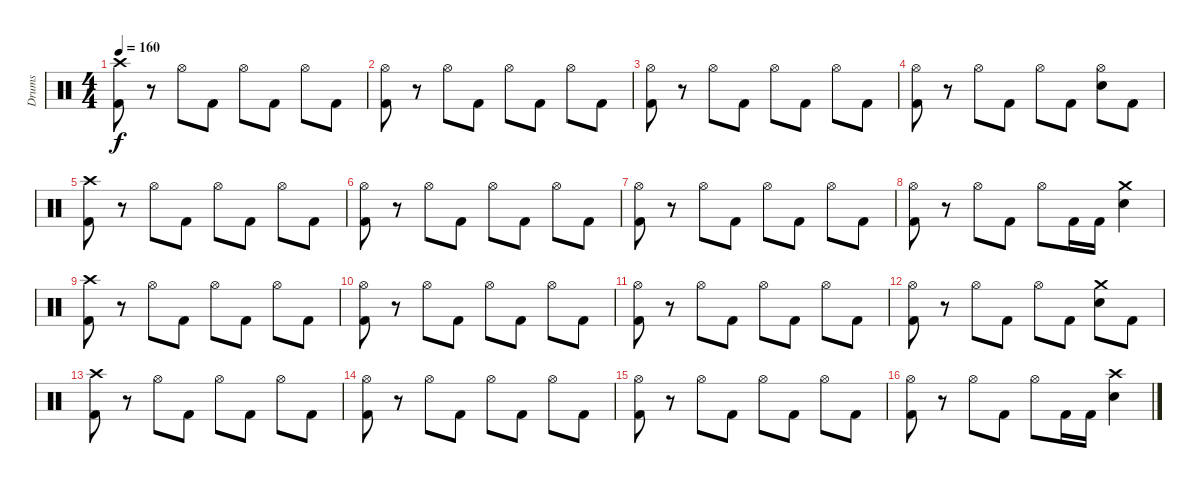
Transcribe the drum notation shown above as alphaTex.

\track ("Drums" "Drums") {instrument percussion}
\staff {score}
\articulation defaults
\ts (4 4)
\tempo 160
\clef neutral
\ks c
("Kick (hit) 2" "Crash high (hit)").8{dy f} r.8 "Hi-Hat (open)".8 "Kick (hit) 2".8 "Hi-Hat (open)".8 "Kick (hit) 2".8 "Hi-Hat (open)".8 "Kick (hit) 2".8 |
("Kick (hit) 2" "Hi-Hat (open)").8 r.8 "Hi-Hat (open)".8 "Kick (hit) 2".8 "Hi-Hat (open)".8 "Kick (hit) 2".8 "Hi-Hat (open)".8 "Kick (hit) 2".8 |
("Kick (hit) 2" "Hi-Hat (open)").8 r.8 "Hi-Hat (open)".8 "Kick (hit) 2".8 "Hi-Hat (open)".8 "Kick (hit) 2".8 "Hi-Hat (open)".8 "Kick (hit) 2".8 |
("Kick (hit) 2" "Hi-Hat (open)").8 r.8 "Hi-Hat (open)".8 "Kick (hit) 2".8 "Hi-Hat (open)".8 "Kick (hit) 2".8 ("Electric Snare (hit)" "Hi-Hat (open)").8 "Kick (hit) 2".8 |
("Kick (hit) 2" "Crash high (hit)").8 r.8 "Hi-Hat (open)".8 "Kick (hit) 2".8 "Hi-Hat (open)".8 "Kick (hit) 2".8 "Hi-Hat (open)".8 "Kick (hit) 2".8 |
("Kick (hit) 2" "Hi-Hat (open)").8 r.8 "Hi-Hat (open)".8 "Kick (hit) 2".8 "Hi-Hat (open)".8 "Kick (hit) 2".8 "Hi-Hat (open)".8 "Kick (hit) 2".8 |
("Kick (hit) 2" "Hi-Hat (open)").8 r.8 "Hi-Hat (open)".8 "Kick (hit) 2".8 "Hi-Hat (open)".8 "Kick (hit) 2".8 "Hi-Hat (open)".8 "Kick (hit) 2".8 |
("Kick (hit) 2" "Hi-Hat (open)").8 r.8 "Hi-Hat (open)".8 "Kick (hit) 2".8 "Hi-Hat (open)".8 "Kick (hit) 2".16 "Kick (hit) 2".16 ("Electric Snare (hit)" "Crash medium (hit)").4 |
("Kick (hit) 2" "Crash high (hit)").8 r.8 "Hi-Hat (open)".8 "Kick (hit) 2".8 "Hi-Hat (open)".8 "Kick (hit) 2".8 "Hi-Hat (open)".8 "Kick (hit) 2".8 |
("Kick (hit) 2" "Hi-Hat (open)").8 r.8 "Hi-Hat (open)".8 "Kick (hit) 2".8 "Hi-Hat (open)".8 "Kick (hit) 2".8 "Hi-Hat (open)".8 "Kick (hit) 2".8 |
("Kick (hit) 2" "Hi-Hat (open)").8 r.8 "Hi-Hat (open)".8 "Kick (hit) 2".8 "Hi-Hat (open)".8 "Kick (hit) 2".8 "Hi-Hat (open)".8 "Kick (hit) 2".8 |
("Kick (hit) 2" "Hi-Hat (open)").8 r.8 "Hi-Hat (open)".8 "Kick (hit) 2".8 "Hi-Hat (open)".8 "Kick (hit) 2".8 ("Electric Snare (hit)" "Crash medium (hit)").8 "Kick (hit) 2".8 |
("Kick (hit) 2" "Crash high (hit)").8 r.8 "Hi-Hat (open)".8 "Kick (hit) 2".8 "Hi-Hat (open)".8 "Kick (hit) 2".8 "Hi-Hat (open)".8 "Kick (hit) 2".8 |
("Kick (hit) 2" "Hi-Hat (open)").8 r.8 "Hi-Hat (open)".8 "Kick (hit) 2".8 "Hi-Hat (open)".8 "Kick (hit) 2".8 "Hi-Hat (open)".8 "Kick (hit) 2".8 |
("Kick (hit) 2" "Hi-Hat (open)").8 r.8 "Hi-Hat (open)".8 "Kick (hit) 2".8 "Hi-Hat (open)".8 "Kick (hit) 2".8 "Hi-Hat (open)".8 "Kick (hit) 2".8 |
("Kick (hit) 2" "Hi-Hat (open)").8 r.8 "Hi-Hat (open)".8 "Kick (hit) 2".8 "Hi-Hat (open)".8 "Kick (hit) 2".16 "Kick (hit) 2".16 ("Electric Snare (hit)" "Crash high (hit)").4
